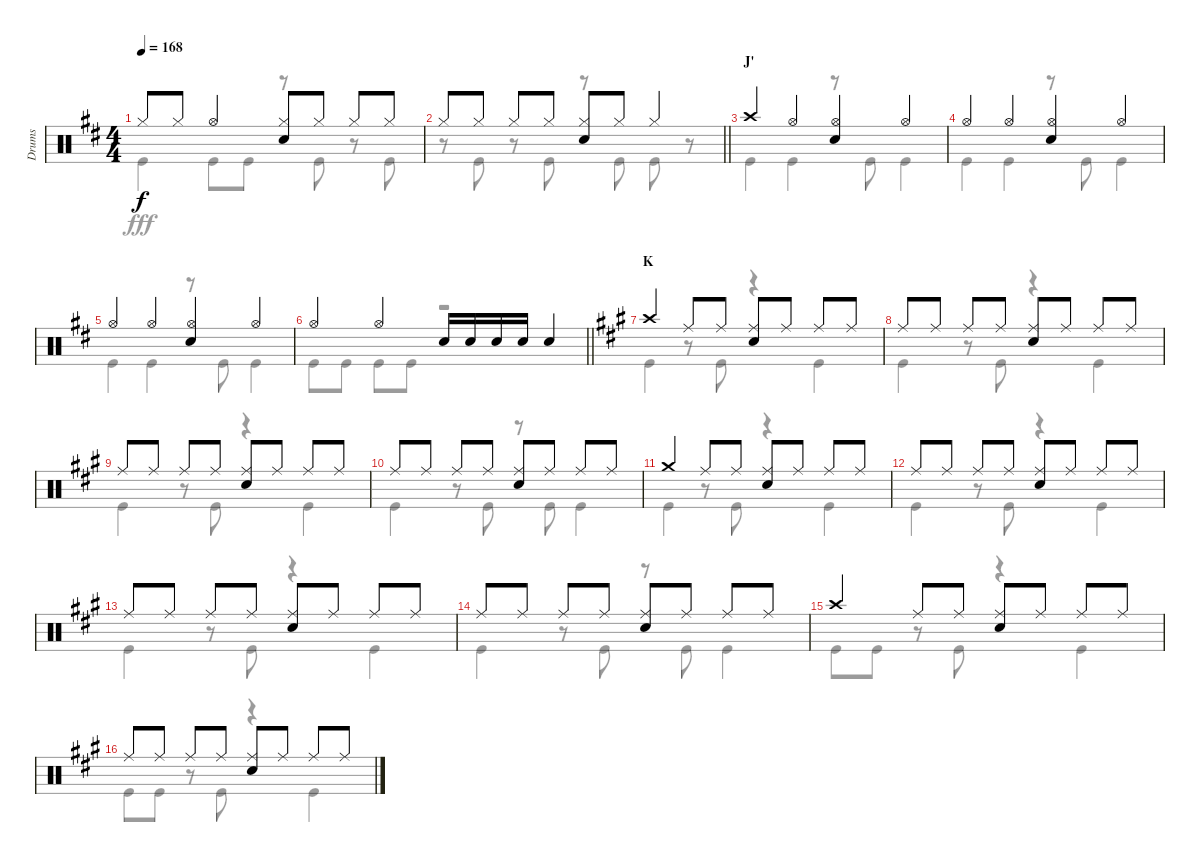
\track ("Drums" "Drums") {instrument percussion}
\staff {score}
\articulation defaults
\voice
\ts (4 4)
\tempo 168
\clef neutral
\ks d "Hi-Hat (closed)".8{dy f} "Hi-Hat (closed)".8 "Hi-Hat (open)".4
("Hi-Hat (closed)" "Snare (hit) 2").8 "Hi-Hat (closed)".8 "Hi-Hat (closed)".8 "Hi-Hat (closed)".8 |
\barLineRight lightlight "Hi-Hat (closed)".8 "Hi-Hat (closed)".8 "Hi-Hat (closed)".8 "Hi-Hat (closed)".8
("Hi-Hat (closed)" "Snare (hit) 2").8 "Hi-Hat (closed)".8 "Hi-Hat (closed)".4 |
\section ("" "J'")
"Crash high (hit)".4 "Hi-Hat (open)".4 ("Hi-Hat (open)" "Snare (hit) 2").4 "Hi-Hat (open)".4 |
"Hi-Hat (open)".4 "Hi-Hat (open)".4 ("Hi-Hat (open)" "Snare (hit) 2").4 "Hi-Hat (open)".4 |
"Hi-Hat (open)".4 "Hi-Hat (open)".4 ("Hi-Hat (open)" "Snare (hit) 2").4 "Hi-Hat (open)".4 |
\barLineRight lightlight "Hi-Hat (open)".4 "Hi-Hat (open)".4 "Snare (hit) 2".16 "Snare (hit) 2".16 "Snare (hit) 2".16 "Snare (hit) 2".16 "Snare (hit) 2".4
|
\section ("" "K")
\ks a "Crash high (hit)".4 "Ride (middle)".8 "Ride (middle)".8
("Ride (middle)" "Snare (hit) 2").8 "Ride (middle)".8 "Ride (middle)".8 "Ride (middle)".8 |
"Ride (middle)".8 "Ride (middle)".8 "Ride (middle)".8 "Ride (middle)".8 ("Ride (middle)" "Snare (hit) 2").8 "Ride (middle)".8 "Ride (middle)".8 "Ride (middle)".8 |
"Ride (middle)".8 "Ride (middle)".8 "Ride (middle)".8 "Ride (middle)".8 ("Ride (middle)" "Snare (hit) 2").8 "Ride (middle)".8 "Ride (middle)".8 "Ride (middle)".8 |
"Ride (middle)".8 "Ride (middle)".8 "Ride (middle)".8 "Ride (middle)".8 ("Ride (middle)" "Snare (hit) 2").8 "Ride (middle)".8 "Ride (middle)".8 "Ride (middle)".8 |
"Crash medium (hit)".4 "Ride (middle)".8 "Ride (middle)".8 ("Ride (middle)" "Snare (hit) 2").8 "Ride (middle)".8 "Ride (middle)".8 "Ride (middle)".8 |
"Ride (middle)".8 "Ride (middle)".8 "Ride (middle)".8 "Ride (middle)".8 ("Ride (middle)" "Snare (hit) 2").8 "Ride (middle)".8 "Ride (middle)".8 "Ride (middle)".8 |
"Ride (middle)".8 "Ride (middle)".8 "Ride (middle)".8 "Ride (middle)".8 ("Ride (middle)" "Snare (hit) 2").8 "Ride (middle)".8 "Ride (middle)".8 "Ride (middle)".8 |
"Ride (middle)".8 "Ride (middle)".8 "Ride (middle)".8 "Ride (middle)".8 ("Ride (middle)" "Snare (hit) 2").8 "Ride (middle)".8 "Ride (middle)".8 "Ride (middle)".8 |
"Crash high (hit)".4 "Ride (middle)".8 "Ride (middle)".8 ("Ride (middle)" "Snare (hit) 2").8 "Ride (middle)".8 "Ride (middle)".8 "Ride (middle)".8 |
"Ride (middle)".8 "Ride (middle)".8 "Ride (middle)".8 "Ride (middle)".8 ("Ride (middle)" "Snare (hit) 2").8 "Ride (middle)".8 "Ride (middle)".8 "Ride (middle)".8
\voice
\clef neutral
\ottava regular
\simile none
\ks d "Kick (hit)".4{dy fff} "Kick (hit)".8 "Kick (hit)".8
r.8 "Kick (hit)".8 r.8 "Kick (hit)".8 |
\barLineRight lightlight
r.8 "Kick (hit)".8 r.8 "Kick (hit)".8 r.8 "Kick (hit)".8 "Kick (hit)".8 r.8 |
"Kick (hit)".4 "Kick (hit)".4 r.8 "Kick (hit)".8 "Kick (hit)".4 |
"Kick (hit)".4 "Kick (hit)".4 r.8 "Kick (hit)".8 "Kick (hit)".4 |
"Kick (hit)".4 "Kick (hit)".4 r.8 "Kick (hit)".8 "Kick (hit)".4 |
\barLineRight lightlight "Kick (hit)".8 "Kick (hit)".8 "Kick (hit)".8 "Kick (hit)".8
r.2 |
\ks a "Kick (hit)".4
r.8 "Kick (hit)".8 r.4 "Kick (hit)".4 |
"Kick (hit)".4 r.8 "Kick (hit)".8 r.4 "Kick (hit)".4 |
"Kick (hit)".4 r.8 "Kick (hit)".8 r.4 "Kick (hit)".4 |
"Kick (hit)".4 r.8 "Kick (hit)".8 r.8 "Kick (hit)".8 "Kick (hit)".4 |
"Kick (hit)".4 r.8 "Kick (hit)".8 r.4 "Kick (hit)".4 |
"Kick (hit)".4 r.8 "Kick (hit)".8 r.4 "Kick (hit)".4 |
"Kick (hit)".4 r.8 "Kick (hit)".8 r.4 "Kick (hit)".4 |
"Kick (hit)".4 r.8 "Kick (hit)".8 r.8 "Kick (hit)".8 "Kick (hit)".4 |
"Kick (hit)".8 "Kick (hit)".8 r.8 "Kick (hit)".8 r.4 "Kick (hit)".4 |
"Kick (hit)".8 "Kick (hit)".8 r.8 "Kick (hit)".8 r.4 "Kick (hit)".4
